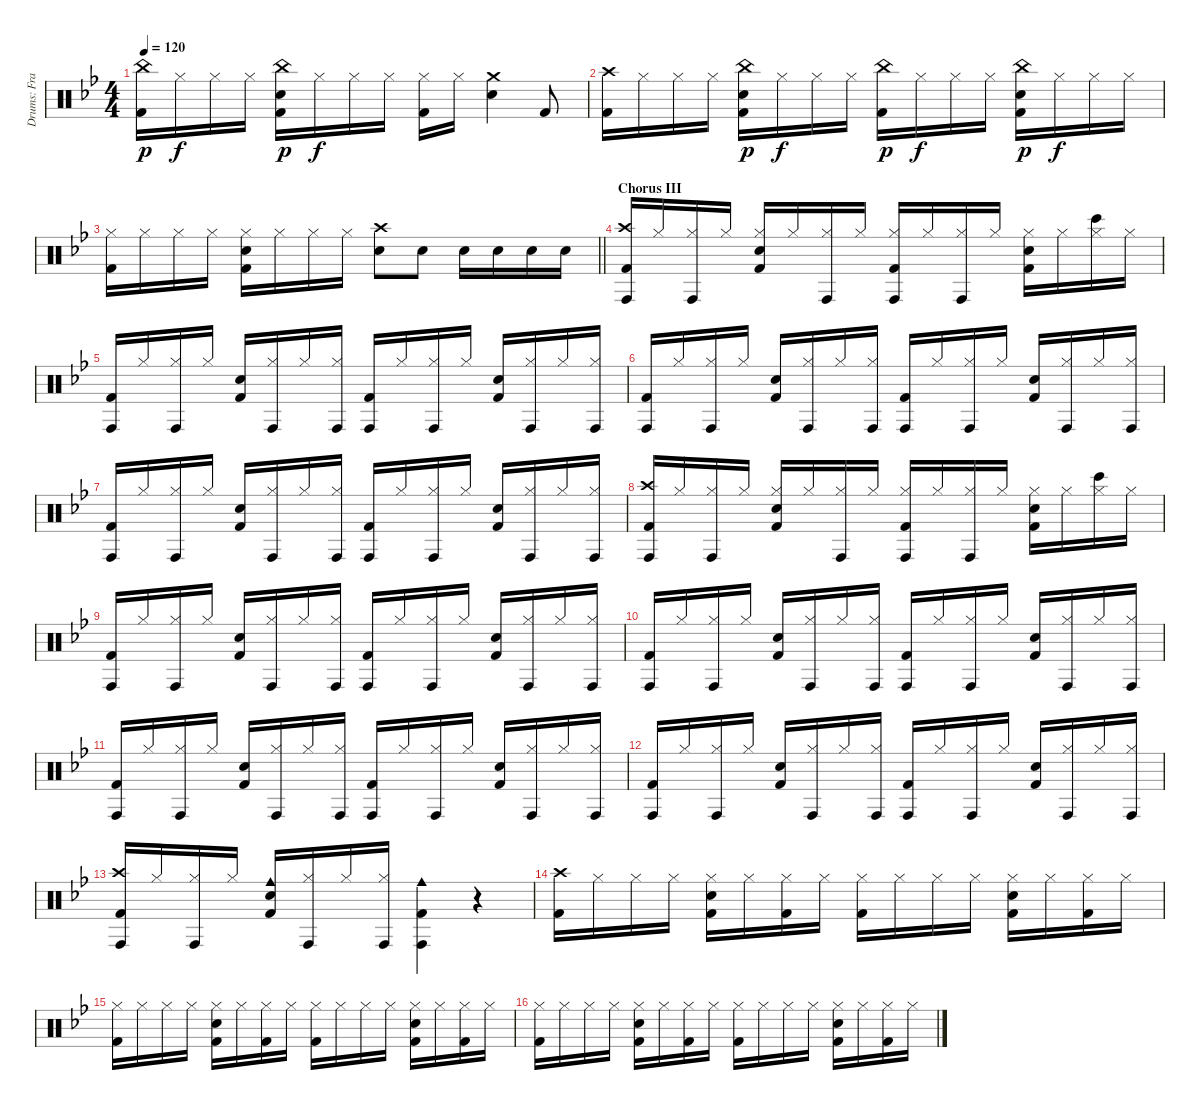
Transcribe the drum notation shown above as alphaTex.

\track ("Drums: Frank" "Drums: Fra") {instrument percussion}
\staff {score}
\articulation defaults
\ts (4 4)
\tempo 120
\clef neutral
\ks bb
("China (hit)" "Kick (hit) 2").16{dy p} "Hi-Hat (closed)".16{dy f} "Hi-Hat (closed)".16 "Hi-Hat (closed)".16 ("China (hit)" "Electric Snare (hit)" "Kick (hit) 2").16{dy p} "Hi-Hat (closed)".16{dy f} "Hi-Hat (closed)".16 "Hi-Hat (closed)".16 ("Hi-Hat (closed)" "Kick (hit) 2").16 "Hi-Hat (closed)".16 ("Crash medium (hit)" "Electric Snare (hit)").4 "Kick (hit) 2".8 |
("Crash high (hit)" "Kick (hit) 2").16 "Hi-Hat (closed)".16 "Hi-Hat (closed)".16 "Hi-Hat (closed)".16 ("China (hit)" "Electric Snare (hit)" "Kick (hit) 2").16{dy p} "Hi-Hat (closed)".16{dy f} "Hi-Hat (closed)".16 "Hi-Hat (closed)".16 ("China (hit)" "Kick (hit) 2").16{dy p} "Hi-Hat (closed)".16{dy f} "Hi-Hat (closed)".16 "Hi-Hat (closed)".16 ("China (hit)" "Electric Snare (hit)" "Kick (hit) 2").16{dy p} "Hi-Hat (closed)".16{dy f} "Hi-Hat (closed)".16 "Hi-Hat (closed)".16 |
\barLineRight lightlight
("Hi-Hat (closed)" "Kick (hit) 2").16 "Hi-Hat (closed)".16 "Hi-Hat (closed)".16 "Hi-Hat (closed)".16 ("Hi-Hat (closed)" "Electric Snare (hit)" "Kick (hit) 2").16 "Hi-Hat (closed)".16 "Hi-Hat (closed)".16 "Hi-Hat (closed)".16 ("Crash high (hit)" "Snare (hit) 2").8 "Snare (hit) 2".8 "Snare (hit) 2".16 "Snare (hit) 2".16 "Snare (hit) 2".16 "Snare (hit) 2".16 |
\section ("" "Chorus III")
("Crash high (hit)" "Conga high (hit)" "Kick (hit) 2").16 "Hi-Hat (closed)".16 ("Hi-Hat (closed)" "Conga high (hit)").16 "Hi-Hat (closed)".16 ("Hi-Hat (closed)" "Snare (hit) 2" "Kick (hit) 2").16 "Hi-Hat (closed)".16 ("Hi-Hat (closed)" "Conga high (hit)").16 "Hi-Hat (closed)".16 ("Hi-Hat (closed)" "Conga high (hit)" "Kick (hit) 2").16 "Hi-Hat (closed)".16 ("Hi-Hat (closed)" "Conga high (hit)").16 "Hi-Hat (closed)".16 ("Hi-Hat (closed)" "Snare (hit) 2" "Kick (hit) 2").16 "Hi-Hat (closed)".16 ("Hi-Hat (closed)" "Bongo High (hit)").16 "Hi-Hat (closed)".16 |
("Conga high (hit)" "Kick (hit) 2").16 "Hi-Hat (closed)".16 ("Hi-Hat (closed)" "Conga high (hit)").16 "Hi-Hat (closed)".16 ("Electric Snare (hit)" "Kick (hit) 2").16 ("Hi-Hat (closed)" "Conga high (hit)").16 "Hi-Hat (closed)".16 ("Hi-Hat (closed)" "Conga high (hit)").16 ("Conga high (hit)" "Kick (hit) 2").16 "Hi-Hat (closed)".16 ("Hi-Hat (closed)" "Conga high (hit)").16 "Hi-Hat (closed)".16 ("Electric Snare (hit)" "Kick (hit) 2").16 ("Hi-Hat (closed)" "Conga high (hit)").16 "Hi-Hat (closed)".16 ("Hi-Hat (closed)" "Conga high (hit)").16 |
("Conga high (hit)" "Kick (hit) 2").16 "Hi-Hat (closed)".16 ("Hi-Hat (closed)" "Conga high (hit)").16 "Hi-Hat (closed)".16 ("Electric Snare (hit)" "Kick (hit) 2").16 ("Hi-Hat (closed)" "Conga high (hit)").16 "Hi-Hat (closed)".16 ("Hi-Hat (closed)" "Conga high (hit)").16 ("Conga high (hit)" "Kick (hit) 2").16 "Hi-Hat (closed)".16 ("Hi-Hat (closed)" "Conga high (hit)").16 "Hi-Hat (closed)".16 ("Electric Snare (hit)" "Kick (hit) 2").16 ("Hi-Hat (closed)" "Conga high (hit)").16 "Hi-Hat (closed)".16 ("Hi-Hat (closed)" "Conga high (hit)").16 |
("Conga high (hit)" "Kick (hit) 2").16 "Hi-Hat (closed)".16 ("Hi-Hat (closed)" "Conga high (hit)").16 "Hi-Hat (closed)".16 ("Electric Snare (hit)" "Kick (hit) 2").16 ("Hi-Hat (closed)" "Conga high (hit)").16 "Hi-Hat (closed)".16 ("Hi-Hat (closed)" "Conga high (hit)").16 ("Conga high (hit)" "Kick (hit) 2").16 "Hi-Hat (closed)".16 ("Hi-Hat (closed)" "Conga high (hit)").16 "Hi-Hat (closed)".16 ("Electric Snare (hit)" "Kick (hit) 2").16 ("Hi-Hat (closed)" "Conga high (hit)").16 "Hi-Hat (closed)".16 ("Hi-Hat (closed)" "Conga high (hit)").16 |
("Crash high (hit)" "Conga high (hit)" "Kick (hit) 2").16 "Hi-Hat (closed)".16 ("Hi-Hat (closed)" "Conga high (hit)").16 "Hi-Hat (closed)".16 ("Hi-Hat (closed)" "Snare (hit) 2" "Kick (hit) 2").16 "Hi-Hat (closed)".16 ("Hi-Hat (closed)" "Conga high (hit)").16 "Hi-Hat (closed)".16 ("Hi-Hat (closed)" "Conga high (hit)" "Kick (hit) 2").16 "Hi-Hat (closed)".16 ("Hi-Hat (closed)" "Conga high (hit)").16 "Hi-Hat (closed)".16 ("Hi-Hat (closed)" "Snare (hit) 2" "Kick (hit) 2").16 "Hi-Hat (closed)".16 ("Hi-Hat (closed)" "Bongo High (hit)").16 "Hi-Hat (closed)".16 |
("Conga high (hit)" "Kick (hit) 2").16 "Hi-Hat (closed)".16 ("Hi-Hat (closed)" "Conga high (hit)").16 "Hi-Hat (closed)".16 ("Electric Snare (hit)" "Kick (hit) 2").16 ("Hi-Hat (closed)" "Conga high (hit)").16 "Hi-Hat (closed)".16 ("Hi-Hat (closed)" "Conga high (hit)").16 ("Conga high (hit)" "Kick (hit) 2").16 "Hi-Hat (closed)".16 ("Hi-Hat (closed)" "Conga high (hit)").16 "Hi-Hat (closed)".16 ("Electric Snare (hit)" "Kick (hit) 2").16 ("Hi-Hat (closed)" "Conga high (hit)").16 "Hi-Hat (closed)".16 ("Hi-Hat (closed)" "Conga high (hit)").16 |
("Conga high (hit)" "Kick (hit) 2").16 "Hi-Hat (closed)".16 ("Hi-Hat (closed)" "Conga high (hit)").16 "Hi-Hat (closed)".16 ("Electric Snare (hit)" "Kick (hit) 2").16 ("Hi-Hat (closed)" "Conga high (hit)").16 "Hi-Hat (closed)".16 ("Hi-Hat (closed)" "Conga high (hit)").16 ("Conga high (hit)" "Kick (hit) 2").16 "Hi-Hat (closed)".16 ("Hi-Hat (closed)" "Conga high (hit)").16 "Hi-Hat (closed)".16 ("Electric Snare (hit)" "Kick (hit) 2").16 ("Hi-Hat (closed)" "Conga high (hit)").16 "Hi-Hat (closed)".16 ("Hi-Hat (closed)" "Conga high (hit)").16 |
("Conga high (hit)" "Kick (hit) 2").16 "Hi-Hat (closed)".16 ("Hi-Hat (closed)" "Conga high (hit)").16 "Hi-Hat (closed)".16 ("Electric Snare (hit)" "Kick (hit) 2").16 ("Hi-Hat (closed)" "Conga high (hit)").16 "Hi-Hat (closed)".16 ("Hi-Hat (closed)" "Conga high (hit)").16 ("Conga high (hit)" "Kick (hit) 2").16 "Hi-Hat (closed)".16 ("Hi-Hat (closed)" "Conga high (hit)").16 "Hi-Hat (closed)".16 ("Electric Snare (hit)" "Kick (hit) 2").16 ("Hi-Hat (closed)" "Conga high (hit)").16 "Hi-Hat (closed)".16 ("Hi-Hat (closed)" "Conga high (hit)").16 |
("Conga high (hit)" "Kick (hit) 2").16 "Hi-Hat (closed)".16 ("Hi-Hat (closed)" "Conga high (hit)").16 "Hi-Hat (closed)".16 ("Electric Snare (hit)" "Kick (hit) 2").16 ("Hi-Hat (closed)" "Conga high (hit)").16 "Hi-Hat (closed)".16 ("Hi-Hat (closed)" "Conga high (hit)").16 ("Conga high (hit)" "Kick (hit) 2").16 "Hi-Hat (closed)".16 ("Hi-Hat (closed)" "Conga high (hit)").16 "Hi-Hat (closed)".16 ("Electric Snare (hit)" "Kick (hit) 2").16 ("Hi-Hat (closed)" "Conga high (hit)").16 "Hi-Hat (closed)".16 ("Hi-Hat (closed)" "Conga high (hit)").16 |
("Crash high (hit)" "Conga high (hit)" "Kick (hit) 2").16 "Hi-Hat (closed)".16 ("Hi-Hat (closed)" "Conga high (hit)").16 "Hi-Hat (closed)".16 ("Cowbell medium (hit)" "Electric Snare (hit)" "Kick (hit) 2").16 ("Hi-Hat (closed)" "Conga high (hit)").16 "Hi-Hat (closed)".16 ("Hi-Hat (closed)" "Conga high (hit)").16 ("Cowbell medium (hit)" "Conga high (hit)" "Kick (hit) 2").4 r.4 |
("Crash high (hit)" "Kick (hit) 2").16 "Hi-Hat (closed)".16 "Hi-Hat (closed)".16 "Hi-Hat (closed)".16 ("Hi-Hat (closed)" "Electric Snare (hit)" "Kick (hit) 2").16 "Hi-Hat (closed)".16 ("Hi-Hat (closed)" "Kick (hit) 2").16 "Hi-Hat (closed)".16 ("Hi-Hat (closed)" "Kick (hit) 2").16 "Hi-Hat (closed)".16 "Hi-Hat (closed)".16 "Hi-Hat (closed)".16 ("Hi-Hat (closed)" "Electric Snare (hit)" "Kick (hit) 2").16 "Hi-Hat (closed)".16 ("Hi-Hat (closed)" "Kick (hit) 2").16 "Hi-Hat (closed)".16 |
("Hi-Hat (closed)" "Kick (hit) 2").16 "Hi-Hat (closed)".16 "Hi-Hat (closed)".16 "Hi-Hat (closed)".16 ("Hi-Hat (closed)" "Electric Snare (hit)" "Kick (hit) 2").16 "Hi-Hat (closed)".16 ("Hi-Hat (closed)" "Kick (hit) 2").16 "Hi-Hat (closed)".16 ("Hi-Hat (closed)" "Kick (hit) 2").16 "Hi-Hat (closed)".16 "Hi-Hat (closed)".16 "Hi-Hat (closed)".16 ("Hi-Hat (closed)" "Electric Snare (hit)" "Kick (hit) 2").16 "Hi-Hat (closed)".16 ("Hi-Hat (closed)" "Kick (hit) 2").16 "Hi-Hat (closed)".16 |
("Hi-Hat (closed)" "Kick (hit) 2").16 "Hi-Hat (closed)".16 "Hi-Hat (closed)".16 "Hi-Hat (closed)".16 ("Hi-Hat (closed)" "Electric Snare (hit)" "Kick (hit) 2").16 "Hi-Hat (closed)".16 ("Hi-Hat (closed)" "Kick (hit) 2").16 "Hi-Hat (closed)".16 ("Hi-Hat (closed)" "Kick (hit) 2").16 "Hi-Hat (closed)".16 "Hi-Hat (closed)".16 "Hi-Hat (closed)".16 ("Hi-Hat (closed)" "Electric Snare (hit)" "Kick (hit) 2").16 "Hi-Hat (closed)".16 ("Hi-Hat (closed)" "Kick (hit) 2").16 "Hi-Hat (closed)".16
